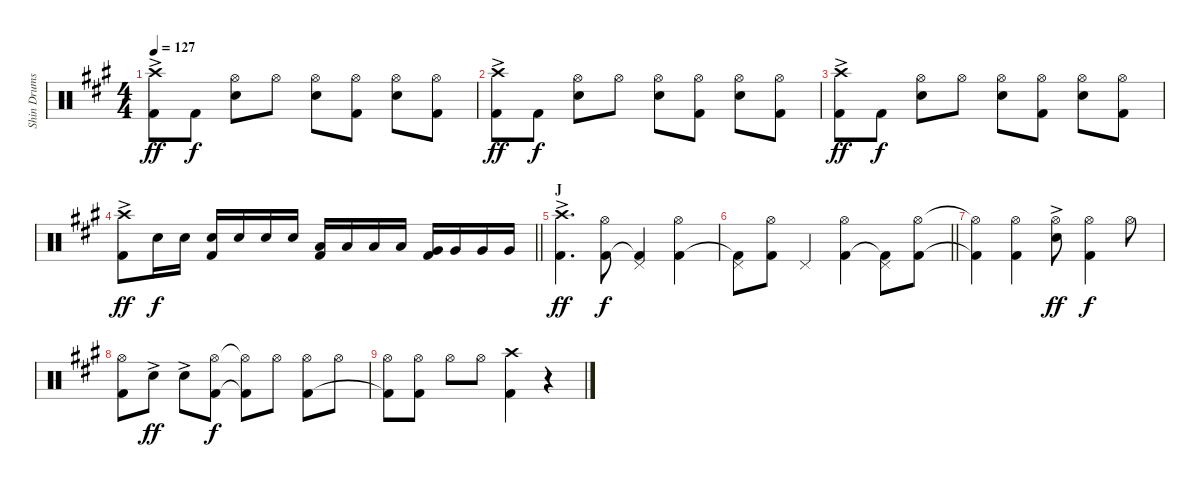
\track ("Shin Drums" "Shin Drums") {instrument percussion}
\staff {score}
\articulation defaults
\ts (4 4)
\tempo 127
\clef neutral
\ks a
("Crash high (hit)"{ac} "Kick (hit) 2").8{dy ff} "Kick (hit) 2".8{dy f} ("Hi-Hat (open)" "Snare (hit) 2").8 "Hi-Hat (open)".8 ("Hi-Hat (open)" "Snare (hit) 2").8 ("Hi-Hat (open)" "Kick (hit) 2").8 ("Hi-Hat (open)" "Snare (hit) 2").8 ("Hi-Hat (open)" "Kick (hit) 2").8 |
("Crash high (hit)"{ac} "Kick (hit) 2").8{dy ff} "Kick (hit) 2".8{dy f} ("Hi-Hat (open)" "Snare (hit) 2").8 "Hi-Hat (open)".8 ("Hi-Hat (open)" "Snare (hit) 2").8 ("Hi-Hat (open)" "Kick (hit) 2").8 ("Hi-Hat (open)" "Snare (hit) 2").8 ("Hi-Hat (open)" "Kick (hit) 2").8 |
("Crash high (hit)"{ac} "Kick (hit) 2").8{dy ff} "Kick (hit) 2".8{dy f} ("Hi-Hat (open)" "Snare (hit) 2").8 "Hi-Hat (open)".8 ("Hi-Hat (open)" "Snare (hit) 2").8 ("Hi-Hat (open)" "Kick (hit) 2").8 ("Hi-Hat (open)" "Snare (hit) 2").8 ("Hi-Hat (open)" "Kick (hit) 2").8 |
\barLineRight lightlight
("Crash high (hit)"{ac} "Kick (hit) 2").8{dy ff} "Snare (hit) 2".16{dy f} "Snare (hit) 2".16 ("Snare (hit) 2" "Kick (hit) 2").16 "Snare (hit) 2".16 "Snare (hit) 2".16 "Snare (hit) 2".16 ("Low Tom (hit)" "Kick (hit) 2").16 "Low Tom (hit)".16 "Low Tom (hit)".16 "Low Tom (hit)".16 ("Very Low Tom (hit)" "Kick (hit) 2").16 "Very Low Tom (hit)".16 "Very Low Tom (hit)".16 "Very Low Tom (hit)".16 |
\section ("" "J")
("Crash high (hit)"{ac} "Kick (hit) 2").4{d dy ff} ("Hi-Hat (open)" "Kick (hit) 2").8{dy f} ("Pedal Hi-Hat (hit)" "Kick (hit) 2"{t}).4 ("Hi-Hat (open)" "Kick (hit) 2").4 |
\barLineRight lightlight
("Pedal Hi-Hat (hit)" "Kick (hit) 2"{t}).8 ("Hi-Hat (open)" "Kick (hit) 2").8 "Pedal Hi-Hat (hit)".4 ("Hi-Hat (open)" "Kick (hit) 2").4 ("Pedal Hi-Hat (hit)" "Kick (hit) 2"{t}).8 ("Hi-Hat (open)" "Kick (hit) 2").8 |
("Hi-Hat (open)"{t} "Kick (hit) 2"{t}).4 ("Hi-Hat (open)" "Kick (hit) 2").4 ("Hi-Hat (open)" "Snare (hit) 2"{ac}).8{dy ff} ("Hi-Hat (open)" "Kick (hit) 2").4{dy f} "Hi-Hat (open)".8 |
("Hi-Hat (open)" "Kick (hit) 2").8 "Snare (hit) 2"{ac}.8{dy ff volume 16} "Snare (hit) 2"{ac}.8{volume 16} ("Hi-Hat (open)" "Kick (hit) 2").8{dy f} ("Hi-Hat (open)"{t} "Kick (hit) 2"{t}).8 "Hi-Hat (open)".8 ("Hi-Hat (open)" "Kick (hit) 2").8 "Hi-Hat (open)".8 |
("Hi-Hat (open)" "Kick (hit) 2"{t}).8 ("Hi-Hat (open)" "Kick (hit) 2").8 "Hi-Hat (open)".8 "Hi-Hat (open)".8 ("Crash high (hit)" "Kick (hit) 2").4 r.4
